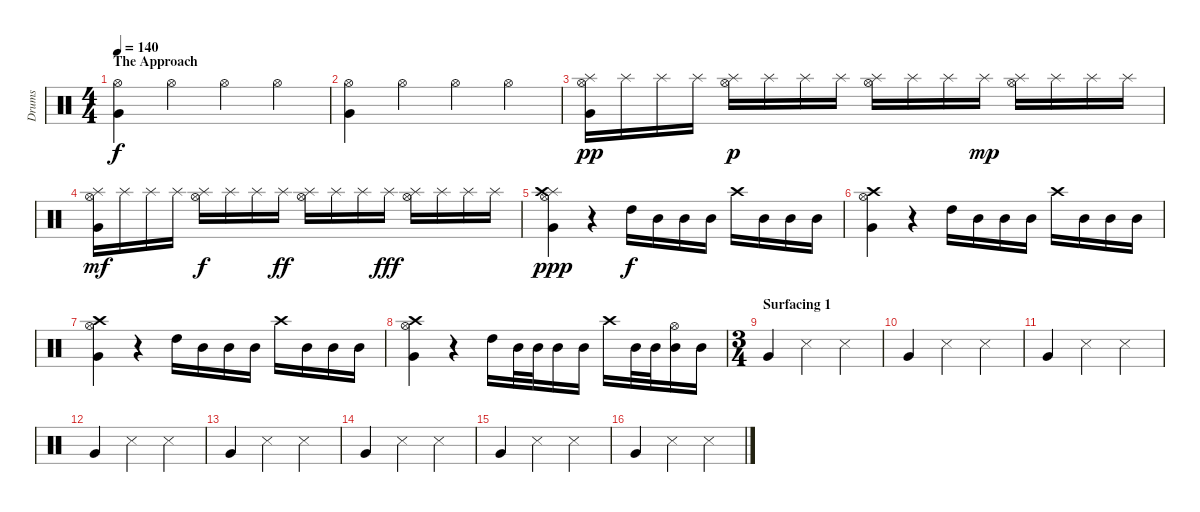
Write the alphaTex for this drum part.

\track ("Drums" "Drums") {instrument percussion}
\staff {score}
\articulation defaults
\ts (4 4)
\section ("" "The Approach")
\tempo 140
\clef neutral
\ks c
("Hi-Hat (open)" "Very Low Tom (hit)").4{dy f volume 16} "Hi-Hat (open)".4 "Hi-Hat (open)".4 "Hi-Hat (open)".4 |
("Hi-Hat (open)" "Very Low Tom (hit)").4 "Hi-Hat (open)".4 "Hi-Hat (open)".4 "Hi-Hat (open)".4 |
("Splash (hit)" "Hi-Hat (open)" "Very Low Tom (hit)").16{dy pp} "Splash (hit)".16 "Splash (hit)".16 "Splash (hit)".16 ("Splash (hit)" "Hi-Hat (open)").16{dy p} "Splash (hit)".16 "Splash (hit)".16 "Splash (hit)".16 ("Splash (hit)" "Hi-Hat (open)").16 "Splash (hit)".16 "Splash (hit)".16 "Splash (hit)".16{dy mp} ("Splash (hit)" "Hi-Hat (open)").16 "Splash (hit)".16 "Splash (hit)".16 "Splash (hit)".16 |
("Splash (hit)" "Hi-Hat (open)" "Very Low Tom (hit)").16{dy mf} "Splash (hit)".16 "Splash (hit)".16 "Splash (hit)".16 ("Splash (hit)" "Hi-Hat (open)").16{dy f} "Splash (hit)".16 "Splash (hit)".16 "Splash (hit)".16{dy ff} ("Splash (hit)" "Hi-Hat (open)").16 "Splash (hit)".16 "Splash (hit)".16 "Splash (hit)".16{dy fff} ("Splash (hit)" "Hi-Hat (open)").16 "Splash (hit)".16 "Splash (hit)".16 "Splash (hit)".16 |
("Splash (hit)" "Crash high (hit)" "Very Low Tom (hit)" "Hi-Hat (open)").4{dy ppp} r.4 "High Tom (hit)".16{dy f} "Mid Tom (hit)".16 "Mid Tom (hit)".16 "Mid Tom (hit)".16 "Crash high (hit)".16 "Mid Tom (hit)".16 "Mid Tom (hit)".16 "Mid Tom (hit)".16 |
("Crash high (hit)" "Very Low Tom (hit)" "Hi-Hat (open)").4 r.4 "High Tom (hit)".16 "Mid Tom (hit)".16 "Mid Tom (hit)".16 "Mid Tom (hit)".16 "Crash high (hit)".16 "Mid Tom (hit)".16 "Mid Tom (hit)".16 "Mid Tom (hit)".16 |
("Crash high (hit)" "Very Low Tom (hit)" "Hi-Hat (open)").4 r.4 "High Tom (hit)".16 "Mid Tom (hit)".16 "Mid Tom (hit)".16 "Mid Tom (hit)".16 "Crash high (hit)".16 "Mid Tom (hit)".16 "Mid Tom (hit)".16 "Mid Tom (hit)".16 |
("Crash high (hit)" "Very Low Tom (hit)" "Hi-Hat (open)").4 r.4 "High Tom (hit)".16 "Mid Tom (hit)".32 "Mid Tom (hit)".32 "Mid Tom (hit)".16 "Mid Tom (hit)".16 "Crash high (hit)".16 "Mid Tom (hit)".32 "Mid Tom (hit)".32 ("Hi-Hat (open)" "Mid Tom (hit)").16 "Mid Tom (hit)".16 |
\ts (3 4)
\section ("" "Surfacing 1")
"Very Low Tom (hit)".4 "Snare (side stick) 3".4 "Snare (side stick) 3".4 |
"Very Low Tom (hit)".4 "Snare (side stick) 3".4 "Snare (side stick) 3".4 |
"Very Low Tom (hit)".4 "Snare (side stick) 3".4 "Snare (side stick) 3".4 |
"Very Low Tom (hit)".4 "Snare (side stick) 3".4 "Snare (side stick) 3".4 |
"Very Low Tom (hit)".4 "Snare (side stick) 3".4 "Snare (side stick) 3".4 |
"Very Low Tom (hit)".4 "Snare (side stick) 3".4 "Snare (side stick) 3".4 |
"Very Low Tom (hit)".4 "Snare (side stick) 3".4 "Snare (side stick) 3".4 |
"Very Low Tom (hit)".4 "Snare (side stick) 3".4 "Snare (side stick) 3".4
